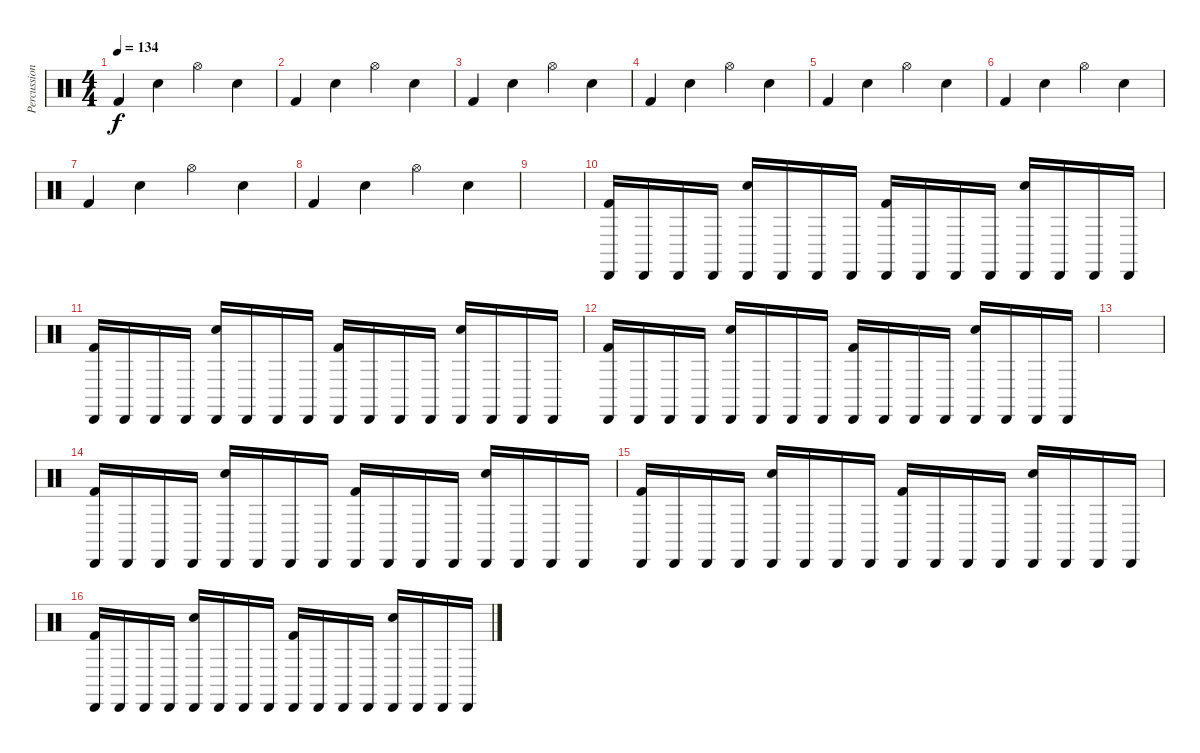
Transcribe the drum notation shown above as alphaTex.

\track ("Percussion" "Percussion") {instrument percussion}
\staff {score}
\articulation defaults
\ts (4 4)
\tempo 134
\clef neutral
\ks c "Kick (hit) 2".4{dy f} "Snare (hit) 2".4 "Hi-Hat (open)".4 "Snare (hit) 2".4
|
"Kick (hit) 2".4 "Snare (hit) 2".4 "Hi-Hat (open)".4 "Snare (hit) 2".4 |
"Kick (hit) 2".4 "Snare (hit) 2".4 "Hi-Hat (open)".4 "Snare (hit) 2".4 |
"Kick (hit) 2".4 "Snare (hit) 2".4 "Hi-Hat (open)".4 "Snare (hit) 2".4 |
"Kick (hit) 2".4 "Snare (hit) 2".4 "Hi-Hat (open)".4 "Snare (hit) 2".4 |
"Kick (hit) 2".4 "Snare (hit) 2".4 "Hi-Hat (open)".4 "Snare (hit) 2".4 |
"Kick (hit) 2".4 "Snare (hit) 2".4 "Hi-Hat (open)".4 "Snare (hit) 2".4 |
"Kick (hit) 2".4 "Snare (hit) 2".4 "Hi-Hat (open)".4 "Snare (hit) 2".4 |
|
("Cabasa (hit)" "Kick (hit) 2").16 "Cabasa (hit)".16 "Cabasa (hit)".16 "Cabasa (hit)".16 ("Cabasa (hit)" "Snare (hit) 2").16 "Cabasa (hit)".16 "Cabasa (hit)".16 "Cabasa (hit)".16 ("Cabasa (hit)" "Kick (hit) 2").16 "Cabasa (hit)".16 "Cabasa (hit)".16 "Cabasa (hit)".16 ("Cabasa (hit)" "Snare (hit) 2").16 "Cabasa (hit)".16 "Cabasa (hit)".16 "Cabasa (hit)".16 |
("Cabasa (hit)" "Kick (hit) 2").16 "Cabasa (hit)".16 "Cabasa (hit)".16 "Cabasa (hit)".16 ("Cabasa (hit)" "Snare (hit) 2").16 "Cabasa (hit)".16 "Cabasa (hit)".16 "Cabasa (hit)".16 ("Cabasa (hit)" "Kick (hit) 2").16 "Cabasa (hit)".16 "Cabasa (hit)".16 "Cabasa (hit)".16 ("Cabasa (hit)" "Snare (hit) 2").16 "Cabasa (hit)".16 "Cabasa (hit)".16 "Cabasa (hit)".16 |
("Cabasa (hit)" "Kick (hit) 2").16 "Cabasa (hit)".16 "Cabasa (hit)".16 "Cabasa (hit)".16 ("Cabasa (hit)" "Snare (hit) 2").16 "Cabasa (hit)".16 "Cabasa (hit)".16 "Cabasa (hit)".16 ("Cabasa (hit)" "Kick (hit) 2").16 "Cabasa (hit)".16 "Cabasa (hit)".16 "Cabasa (hit)".16 ("Cabasa (hit)" "Snare (hit) 2").16 "Cabasa (hit)".16 "Cabasa (hit)".16 "Cabasa (hit)".16 |
|
("Cabasa (hit)" "Kick (hit) 2").16 "Cabasa (hit)".16 "Cabasa (hit)".16 "Cabasa (hit)".16 ("Cabasa (hit)" "Snare (hit) 2").16 "Cabasa (hit)".16 "Cabasa (hit)".16 "Cabasa (hit)".16 ("Cabasa (hit)" "Kick (hit) 2").16 "Cabasa (hit)".16 "Cabasa (hit)".16 "Cabasa (hit)".16 ("Cabasa (hit)" "Snare (hit) 2").16 "Cabasa (hit)".16 "Cabasa (hit)".16 "Cabasa (hit)".16 |
("Cabasa (hit)" "Kick (hit) 2").16 "Cabasa (hit)".16 "Cabasa (hit)".16 "Cabasa (hit)".16 ("Cabasa (hit)" "Snare (hit) 2").16 "Cabasa (hit)".16 "Cabasa (hit)".16 "Cabasa (hit)".16 ("Cabasa (hit)" "Kick (hit) 2").16 "Cabasa (hit)".16 "Cabasa (hit)".16 "Cabasa (hit)".16 ("Cabasa (hit)" "Snare (hit) 2").16 "Cabasa (hit)".16 "Cabasa (hit)".16 "Cabasa (hit)".16 |
("Cabasa (hit)" "Kick (hit) 2").16 "Cabasa (hit)".16 "Cabasa (hit)".16 "Cabasa (hit)".16 ("Cabasa (hit)" "Snare (hit) 2").16 "Cabasa (hit)".16 "Cabasa (hit)".16 "Cabasa (hit)".16 ("Cabasa (hit)" "Kick (hit) 2").16 "Cabasa (hit)".16 "Cabasa (hit)".16 "Cabasa (hit)".16 ("Cabasa (hit)" "Snare (hit) 2").16 "Cabasa (hit)".16 "Cabasa (hit)".16 "Cabasa (hit)".16
